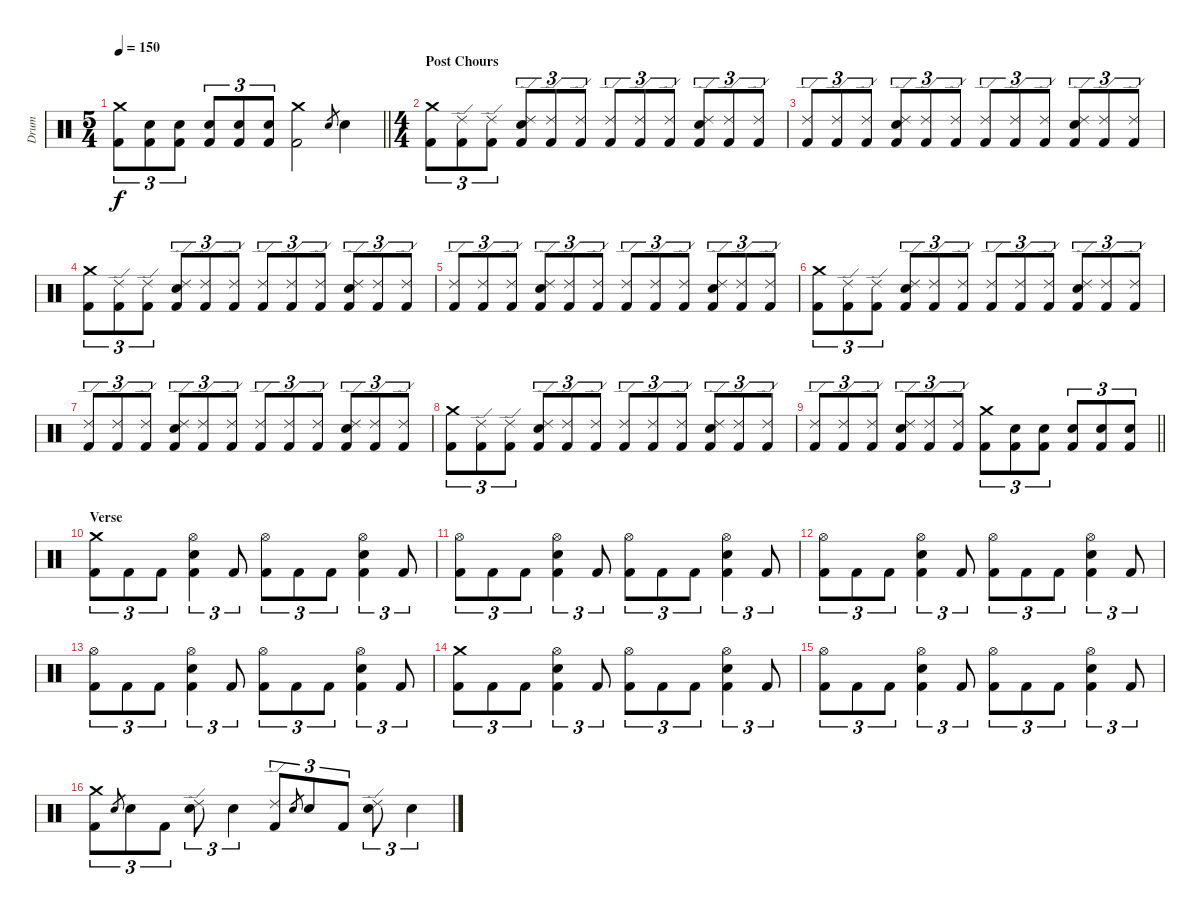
\track ("Drum" "Drum") {instrument percussion}
\staff
\articulation defaults
\ts (5 4)
\tempo 150
\clef neutral
\barLineRight lightlight
\ks c
("Crash medium (hit)" "Kick (hit) 2").8{tu (3 2) dy f} ("Electric Snare (hit)" "Kick (hit) 2").8{tu (3 2)} ("Electric Snare (hit)" "Kick (hit) 2").8{tu (3 2)} ("Electric Snare (hit)" "Kick (hit) 2").8{tu (3 2)} ("Electric Snare (hit)" "Kick (hit) 2").8{tu (3 2)} ("Electric Snare (hit)" "Kick (hit) 2").8{tu (3 2)} ("Crash medium (hit)" "Kick (hit) 2").2 "Electric Snare (hit)".8{gr} "Electric Snare (hit)".4 |
\ts (4 4)
\section ("" "Post Chours")
("Crash medium (hit)" "Kick (hit) 2").8{tu (3 2)} ("Ride (edge) 2" "Kick (hit) 2").8{tu (3 2)} ("Ride (edge) 2" "Kick (hit) 2").8{tu (3 2)} ("Ride (edge) 2" "Electric Snare (hit)" "Kick (hit) 2").8{tu (3 2)} ("Ride (edge) 2" "Kick (hit) 2").8{tu (3 2)} ("Ride (edge) 2" "Kick (hit) 2").8{tu (3 2)} ("Ride (edge) 2" "Kick (hit) 2").8{tu (3 2)} ("Ride (edge) 2" "Kick (hit) 2").8{tu (3 2)} ("Ride (edge) 2" "Kick (hit) 2").8{tu (3 2)} ("Ride (edge) 2" "Electric Snare (hit)" "Kick (hit) 2").8{tu (3 2)} ("Ride (edge) 2" "Kick (hit) 2").8{tu (3 2)} ("Ride (edge) 2" "Kick (hit) 2").8{tu (3 2)} |
("Ride (edge) 2" "Kick (hit) 2").8{tu (3 2)} ("Ride (edge) 2" "Kick (hit) 2").8{tu (3 2)} ("Ride (edge) 2" "Kick (hit) 2").8{tu (3 2)} ("Ride (edge) 2" "Electric Snare (hit)" "Kick (hit) 2").8{tu (3 2)} ("Ride (edge) 2" "Kick (hit) 2").8{tu (3 2)} ("Ride (edge) 2" "Kick (hit) 2").8{tu (3 2)} ("Ride (edge) 2" "Kick (hit) 2").8{tu (3 2)} ("Ride (edge) 2" "Kick (hit) 2").8{tu (3 2)} ("Ride (edge) 2" "Kick (hit) 2").8{tu (3 2)} ("Ride (edge) 2" "Electric Snare (hit)" "Kick (hit) 2").8{tu (3 2)} ("Ride (edge) 2" "Kick (hit) 2").8{tu (3 2)} ("Ride (edge) 2" "Kick (hit) 2").8{tu (3 2)} |
("Crash medium (hit)" "Kick (hit) 2").8{tu (3 2)} ("Ride (edge) 2" "Kick (hit) 2").8{tu (3 2)} ("Ride (edge) 2" "Kick (hit) 2").8{tu (3 2)} ("Ride (edge) 2" "Electric Snare (hit)" "Kick (hit) 2").8{tu (3 2)} ("Ride (edge) 2" "Kick (hit) 2").8{tu (3 2)} ("Ride (edge) 2" "Kick (hit) 2").8{tu (3 2)} ("Ride (edge) 2" "Kick (hit) 2").8{tu (3 2)} ("Ride (edge) 2" "Kick (hit) 2").8{tu (3 2)} ("Ride (edge) 2" "Kick (hit) 2").8{tu (3 2)} ("Ride (edge) 2" "Electric Snare (hit)" "Kick (hit) 2").8{tu (3 2)} ("Ride (edge) 2" "Kick (hit) 2").8{tu (3 2)} ("Ride (edge) 2" "Kick (hit) 2").8{tu (3 2)} |
("Ride (edge) 2" "Kick (hit) 2").8{tu (3 2)} ("Ride (edge) 2" "Kick (hit) 2").8{tu (3 2)} ("Ride (edge) 2" "Kick (hit) 2").8{tu (3 2)} ("Ride (edge) 2" "Electric Snare (hit)" "Kick (hit) 2").8{tu (3 2)} ("Ride (edge) 2" "Kick (hit) 2").8{tu (3 2)} ("Ride (edge) 2" "Kick (hit) 2").8{tu (3 2)} ("Ride (edge) 2" "Kick (hit) 2").8{tu (3 2)} ("Ride (edge) 2" "Kick (hit) 2").8{tu (3 2)} ("Ride (edge) 2" "Kick (hit) 2").8{tu (3 2)} ("Ride (edge) 2" "Electric Snare (hit)" "Kick (hit) 2").8{tu (3 2)} ("Ride (edge) 2" "Kick (hit) 2").8{tu (3 2)} ("Ride (edge) 2" "Kick (hit) 2").8{tu (3 2)} |
("Crash medium (hit)" "Kick (hit) 2").8{tu (3 2)} ("Ride (edge) 2" "Kick (hit) 2").8{tu (3 2)} ("Ride (edge) 2" "Kick (hit) 2").8{tu (3 2)} ("Ride (edge) 2" "Electric Snare (hit)" "Kick (hit) 2").8{tu (3 2)} ("Ride (edge) 2" "Kick (hit) 2").8{tu (3 2)} ("Ride (edge) 2" "Kick (hit) 2").8{tu (3 2)} ("Ride (edge) 2" "Kick (hit) 2").8{tu (3 2)} ("Ride (edge) 2" "Kick (hit) 2").8{tu (3 2)} ("Ride (edge) 2" "Kick (hit) 2").8{tu (3 2)} ("Ride (edge) 2" "Electric Snare (hit)" "Kick (hit) 2").8{tu (3 2)} ("Ride (edge) 2" "Kick (hit) 2").8{tu (3 2)} ("Ride (edge) 2" "Kick (hit) 2").8{tu (3 2)} |
("Ride (edge) 2" "Kick (hit) 2").8{tu (3 2)} ("Ride (edge) 2" "Kick (hit) 2").8{tu (3 2)} ("Ride (edge) 2" "Kick (hit) 2").8{tu (3 2)} ("Ride (edge) 2" "Electric Snare (hit)" "Kick (hit) 2").8{tu (3 2)} ("Ride (edge) 2" "Kick (hit) 2").8{tu (3 2)} ("Ride (edge) 2" "Kick (hit) 2").8{tu (3 2)} ("Ride (edge) 2" "Kick (hit) 2").8{tu (3 2)} ("Ride (edge) 2" "Kick (hit) 2").8{tu (3 2)} ("Ride (edge) 2" "Kick (hit) 2").8{tu (3 2)} ("Ride (edge) 2" "Electric Snare (hit)" "Kick (hit) 2").8{tu (3 2)} ("Ride (edge) 2" "Kick (hit) 2").8{tu (3 2)} ("Ride (edge) 2" "Kick (hit) 2").8{tu (3 2)} |
("Crash medium (hit)" "Kick (hit) 2").8{tu (3 2)} ("Ride (edge) 2" "Kick (hit) 2").8{tu (3 2)} ("Ride (edge) 2" "Kick (hit) 2").8{tu (3 2)} ("Ride (edge) 2" "Electric Snare (hit)" "Kick (hit) 2").8{tu (3 2)} ("Ride (edge) 2" "Kick (hit) 2").8{tu (3 2)} ("Ride (edge) 2" "Kick (hit) 2").8{tu (3 2)} ("Ride (edge) 2" "Kick (hit) 2").8{tu (3 2)} ("Ride (edge) 2" "Kick (hit) 2").8{tu (3 2)} ("Ride (edge) 2" "Kick (hit) 2").8{tu (3 2)} ("Ride (edge) 2" "Electric Snare (hit)" "Kick (hit) 2").8{tu (3 2)} ("Ride (edge) 2" "Kick (hit) 2").8{tu (3 2)} ("Ride (edge) 2" "Kick (hit) 2").8{tu (3 2)} |
\barLineRight lightlight
("Ride (edge) 2" "Kick (hit) 2").8{tu (3 2)} ("Ride (edge) 2" "Kick (hit) 2").8{tu (3 2)} ("Ride (edge) 2" "Kick (hit) 2").8{tu (3 2)} ("Ride (edge) 2" "Electric Snare (hit)" "Kick (hit) 2").8{tu (3 2)} ("Ride (edge) 2" "Kick (hit) 2").8{tu (3 2)} ("Ride (edge) 2" "Kick (hit) 2").8{tu (3 2)} ("Crash medium (hit)" "Kick (hit) 2").8{tu (3 2)} ("Electric Snare (hit)" "Kick (hit) 2").8{tu (3 2)} ("Electric Snare (hit)" "Kick (hit) 2").8{tu (3 2)} ("Electric Snare (hit)" "Kick (hit) 2").8{tu (3 2)} ("Electric Snare (hit)" "Kick (hit) 2").8{tu (3 2)} ("Electric Snare (hit)" "Kick (hit) 2").8{tu (3 2)} |
\section ("" "Verse")
("Crash medium (hit)" "Kick (hit) 2").8{tu (3 2)} "Kick (hit) 2".8{tu (3 2)} "Kick (hit) 2".8{tu (3 2)} ("Hi-Hat (open)" "Electric Snare (hit)" "Kick (hit) 2").4{tu (3 2)} "Kick (hit) 2".8{tu (3 2)} ("Hi-Hat (open)" "Kick (hit) 2").8{tu (3 2)} "Kick (hit) 2".8{tu (3 2)} "Kick (hit) 2".8{tu (3 2)} ("Hi-Hat (open)" "Electric Snare (hit)" "Kick (hit) 2").4{tu (3 2)} "Kick (hit) 2".8{tu (3 2)} |
("Hi-Hat (open)" "Kick (hit) 2").8{tu (3 2)} "Kick (hit) 2".8{tu (3 2)} "Kick (hit) 2".8{tu (3 2)} ("Hi-Hat (open)" "Electric Snare (hit)" "Kick (hit) 2").4{tu (3 2)} "Kick (hit) 2".8{tu (3 2)} ("Hi-Hat (open)" "Kick (hit) 2").8{tu (3 2)} "Kick (hit) 2".8{tu (3 2)} "Kick (hit) 2".8{tu (3 2)} ("Hi-Hat (open)" "Electric Snare (hit)" "Kick (hit) 2").4{tu (3 2)} "Kick (hit) 2".8{tu (3 2)} |
("Hi-Hat (open)" "Kick (hit) 2").8{tu (3 2)} "Kick (hit) 2".8{tu (3 2)} "Kick (hit) 2".8{tu (3 2)} ("Hi-Hat (open)" "Electric Snare (hit)" "Kick (hit) 2").4{tu (3 2)} "Kick (hit) 2".8{tu (3 2)} ("Hi-Hat (open)" "Kick (hit) 2").8{tu (3 2)} "Kick (hit) 2".8{tu (3 2)} "Kick (hit) 2".8{tu (3 2)} ("Hi-Hat (open)" "Electric Snare (hit)" "Kick (hit) 2").4{tu (3 2)} "Kick (hit) 2".8{tu (3 2)} |
("Hi-Hat (open)" "Kick (hit) 2").8{tu (3 2)} "Kick (hit) 2".8{tu (3 2)} "Kick (hit) 2".8{tu (3 2)} ("Hi-Hat (open)" "Electric Snare (hit)" "Kick (hit) 2").4{tu (3 2)} "Kick (hit) 2".8{tu (3 2)} ("Hi-Hat (open)" "Kick (hit) 2").8{tu (3 2)} "Kick (hit) 2".8{tu (3 2)} "Kick (hit) 2".8{tu (3 2)} ("Hi-Hat (open)" "Electric Snare (hit)" "Kick (hit) 2").4{tu (3 2)} "Kick (hit) 2".8{tu (3 2)} |
("Crash medium (hit)" "Kick (hit) 2").8{tu (3 2)} "Kick (hit) 2".8{tu (3 2)} "Kick (hit) 2".8{tu (3 2)} ("Hi-Hat (open)" "Electric Snare (hit)" "Kick (hit) 2").4{tu (3 2)} "Kick (hit) 2".8{tu (3 2)} ("Hi-Hat (open)" "Kick (hit) 2").8{tu (3 2)} "Kick (hit) 2".8{tu (3 2)} "Kick (hit) 2".8{tu (3 2)} ("Hi-Hat (open)" "Electric Snare (hit)" "Kick (hit) 2").4{tu (3 2)} "Kick (hit) 2".8{tu (3 2)} |
("Hi-Hat (open)" "Kick (hit) 2").8{tu (3 2)} "Kick (hit) 2".8{tu (3 2)} "Kick (hit) 2".8{tu (3 2)} ("Hi-Hat (open)" "Electric Snare (hit)" "Kick (hit) 2").4{tu (3 2)} "Kick (hit) 2".8{tu (3 2)} ("Hi-Hat (open)" "Kick (hit) 2").8{tu (3 2)} "Kick (hit) 2".8{tu (3 2)} "Kick (hit) 2".8{tu (3 2)} ("Hi-Hat (open)" "Electric Snare (hit)" "Kick (hit) 2").4{tu (3 2)} "Kick (hit) 2".8{tu (3 2)} |
("Crash medium (hit)" "Kick (hit) 2").8{tu (3 2)} "Electric Snare (hit)".8{gr} "Electric Snare (hit)".8{tu (3 2)} "Kick (hit) 2".8{tu (3 2)} ("Ride (edge) 2" "Electric Snare (hit)").8{tu (3 2)} "Electric Snare (hit)".4{tu (3 2)} ("Ride (edge) 2" "Kick (hit) 2").8{tu (3 2)} "Electric Snare (hit)".8{gr} "Electric Snare (hit)".8{tu (3 2)} "Kick (hit) 2".8{tu (3 2)} ("Ride (edge) 2" "Electric Snare (hit)").8{tu (3 2)} "Electric Snare (hit)".4{tu (3 2)}
